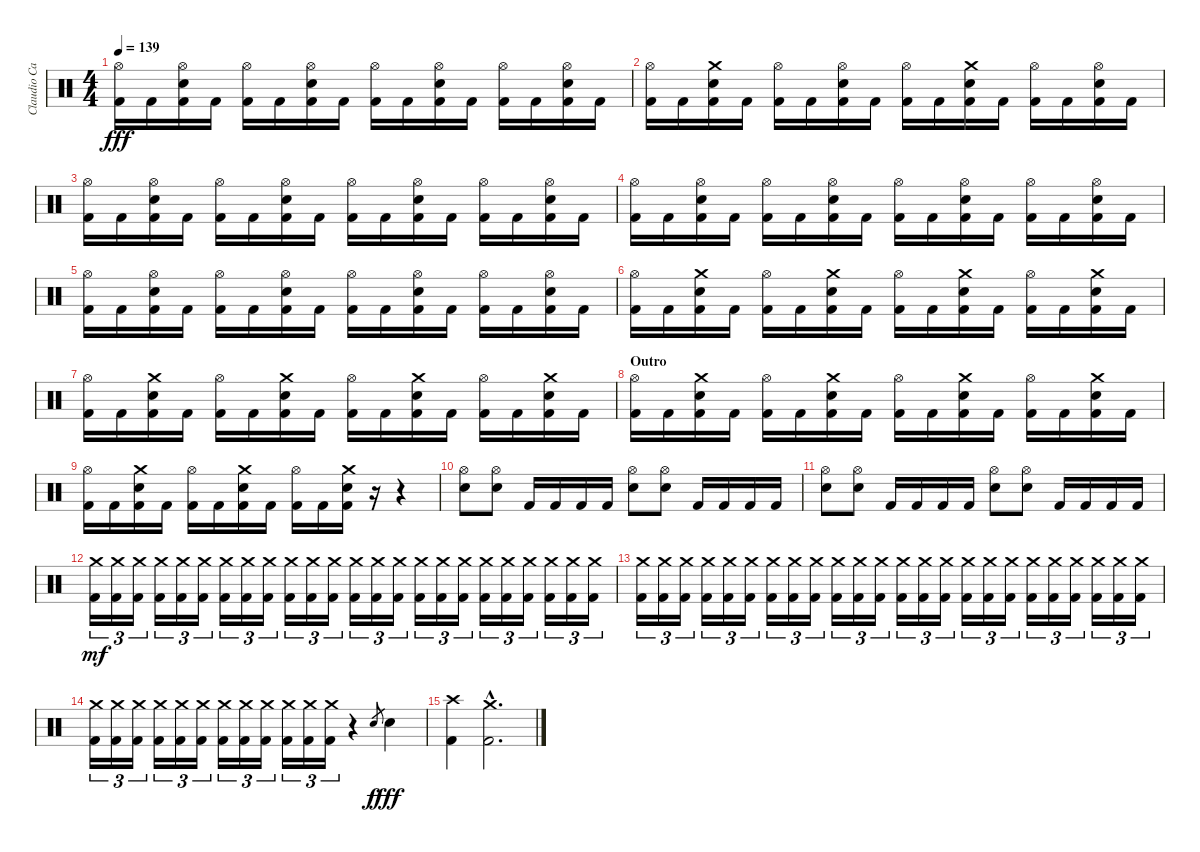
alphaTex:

\track ("Claudio Cardaci" "Claudio Ca") {instrument percussion}
\staff {score}
\articulation defaults
\ts (4 4)
\tempo 139
\clef neutral
\ks c
("Kick (hit) 2" "Hi-Hat (open)").16{dy fff} "Kick (hit) 2".16 ("Kick (hit) 2" "Electric Snare (hit)" "Hi-Hat (open)").16 "Kick (hit) 2".16 ("Kick (hit) 2" "Hi-Hat (open)").16 "Kick (hit) 2".16 ("Kick (hit) 2" "Electric Snare (hit)" "Hi-Hat (open)").16 "Kick (hit) 2".16 ("Kick (hit) 2" "Hi-Hat (open)").16 "Kick (hit) 2".16 ("Kick (hit) 2" "Electric Snare (hit)" "Hi-Hat (open)").16 "Kick (hit) 2".16 ("Kick (hit) 2" "Hi-Hat (open)").16 "Kick (hit) 2".16 ("Kick (hit) 2" "Electric Snare (hit)" "Hi-Hat (open)").16 "Kick (hit) 2".16 |
("Kick (hit) 2" "Hi-Hat (open)").16 "Kick (hit) 2".16 ("Kick (hit) 2" "Electric Snare (hit)" "Crash medium (hit)").16 "Kick (hit) 2".16 ("Kick (hit) 2" "Hi-Hat (open)").16 "Kick (hit) 2".16 ("Kick (hit) 2" "Electric Snare (hit)" "Hi-Hat (open)").16 "Kick (hit) 2".16 ("Kick (hit) 2" "Hi-Hat (open)").16 "Kick (hit) 2".16 ("Kick (hit) 2" "Electric Snare (hit)" "Crash medium (hit)").16 "Kick (hit) 2".16 ("Kick (hit) 2" "Hi-Hat (open)").16 "Kick (hit) 2".16 ("Kick (hit) 2" "Electric Snare (hit)" "Hi-Hat (open)").16 "Kick (hit) 2".16 |
("Kick (hit) 2" "Hi-Hat (open)").16 "Kick (hit) 2".16 ("Kick (hit) 2" "Electric Snare (hit)" "Hi-Hat (open)").16 "Kick (hit) 2".16 ("Kick (hit) 2" "Hi-Hat (open)").16 "Kick (hit) 2".16 ("Kick (hit) 2" "Electric Snare (hit)" "Hi-Hat (open)").16 "Kick (hit) 2".16 ("Kick (hit) 2" "Hi-Hat (open)").16 "Kick (hit) 2".16 ("Kick (hit) 2" "Electric Snare (hit)" "Hi-Hat (open)").16 "Kick (hit) 2".16 ("Kick (hit) 2" "Hi-Hat (open)").16 "Kick (hit) 2".16 ("Kick (hit) 2" "Electric Snare (hit)" "Hi-Hat (open)").16 "Kick (hit) 2".16 |
("Kick (hit) 2" "Hi-Hat (open)").16 "Kick (hit) 2".16 ("Kick (hit) 2" "Electric Snare (hit)" "Hi-Hat (open)").16 "Kick (hit) 2".16 ("Kick (hit) 2" "Hi-Hat (open)").16 "Kick (hit) 2".16 ("Kick (hit) 2" "Electric Snare (hit)" "Hi-Hat (open)").16 "Kick (hit) 2".16 ("Kick (hit) 2" "Hi-Hat (open)").16 "Kick (hit) 2".16 ("Kick (hit) 2" "Electric Snare (hit)" "Hi-Hat (open)").16 "Kick (hit) 2".16 ("Kick (hit) 2" "Hi-Hat (open)").16 "Kick (hit) 2".16 ("Kick (hit) 2" "Electric Snare (hit)" "Hi-Hat (open)").16 "Kick (hit) 2".16 |
("Kick (hit) 2" "Hi-Hat (open)").16 "Kick (hit) 2".16 ("Kick (hit) 2" "Electric Snare (hit)" "Hi-Hat (open)").16 "Kick (hit) 2".16 ("Kick (hit) 2" "Hi-Hat (open)").16 "Kick (hit) 2".16 ("Kick (hit) 2" "Electric Snare (hit)" "Hi-Hat (open)").16 "Kick (hit) 2".16 ("Kick (hit) 2" "Hi-Hat (open)").16 "Kick (hit) 2".16 ("Kick (hit) 2" "Electric Snare (hit)" "Hi-Hat (open)").16 "Kick (hit) 2".16 ("Kick (hit) 2" "Hi-Hat (open)").16 "Kick (hit) 2".16 ("Kick (hit) 2" "Electric Snare (hit)" "Hi-Hat (open)").16 "Kick (hit) 2".16 |
("Kick (hit) 2" "Hi-Hat (open)").16 "Kick (hit) 2".16 ("Kick (hit) 2" "Electric Snare (hit)" "Crash medium (hit)").16 "Kick (hit) 2".16 ("Kick (hit) 2" "Hi-Hat (open)").16 "Kick (hit) 2".16 ("Kick (hit) 2" "Electric Snare (hit)" "Crash medium (hit)").16 "Kick (hit) 2".16 ("Kick (hit) 2" "Hi-Hat (open)").16 "Kick (hit) 2".16 ("Kick (hit) 2" "Electric Snare (hit)" "Crash medium (hit)").16 "Kick (hit) 2".16 ("Kick (hit) 2" "Hi-Hat (open)").16 "Kick (hit) 2".16 ("Kick (hit) 2" "Electric Snare (hit)" "Crash medium (hit)").16 "Kick (hit) 2".16 |
("Kick (hit) 2" "Hi-Hat (open)").16 "Kick (hit) 2".16 ("Kick (hit) 2" "Electric Snare (hit)" "Crash medium (hit)").16 "Kick (hit) 2".16 ("Kick (hit) 2" "Hi-Hat (open)").16 "Kick (hit) 2".16 ("Kick (hit) 2" "Electric Snare (hit)" "Crash medium (hit)").16 "Kick (hit) 2".16 ("Kick (hit) 2" "Hi-Hat (open)").16 "Kick (hit) 2".16 ("Kick (hit) 2" "Electric Snare (hit)" "Crash medium (hit)").16 "Kick (hit) 2".16 ("Kick (hit) 2" "Hi-Hat (open)").16 "Kick (hit) 2".16 ("Kick (hit) 2" "Electric Snare (hit)" "Crash medium (hit)").16 "Kick (hit) 2".16 |
\section ("" "Outro")
("Kick (hit) 2" "Hi-Hat (open)").16 "Kick (hit) 2".16 ("Kick (hit) 2" "Electric Snare (hit)" "Crash medium (hit)").16 "Kick (hit) 2".16 ("Kick (hit) 2" "Hi-Hat (open)").16 "Kick (hit) 2".16 ("Kick (hit) 2" "Electric Snare (hit)" "Crash medium (hit)").16 "Kick (hit) 2".16 ("Kick (hit) 2" "Hi-Hat (open)").16 "Kick (hit) 2".16 ("Kick (hit) 2" "Electric Snare (hit)" "Crash medium (hit)").16 "Kick (hit) 2".16 ("Kick (hit) 2" "Hi-Hat (open)").16 "Kick (hit) 2".16 ("Kick (hit) 2" "Electric Snare (hit)" "Crash medium (hit)").16 "Kick (hit) 2".16 |
("Kick (hit) 2" "Hi-Hat (open)").16 "Kick (hit) 2".16 ("Kick (hit) 2" "Electric Snare (hit)" "Crash medium (hit)").16 "Kick (hit) 2".16 ("Kick (hit) 2" "Hi-Hat (open)").16 "Kick (hit) 2".16 ("Kick (hit) 2" "Electric Snare (hit)" "Crash medium (hit)").16 "Kick (hit) 2".16 ("Kick (hit) 2" "Hi-Hat (open)").16 "Kick (hit) 2".16 ("Kick (hit) 2" "Electric Snare (hit)" "Crash medium (hit)").16 r.16 r.4 |
("Electric Snare (hit)" "Hi-Hat (open)").8 ("Electric Snare (hit)" "Hi-Hat (open)").8 "Kick (hit) 2".16 "Kick (hit) 2".16 "Kick (hit) 2".16 "Kick (hit) 2".16 ("Electric Snare (hit)" "Hi-Hat (open)").8 ("Electric Snare (hit)" "Hi-Hat (open)").8 "Kick (hit) 2".16 "Kick (hit) 2".16 "Kick (hit) 2".16 "Kick (hit) 2".16 |
("Electric Snare (hit)" "Hi-Hat (open)").8 ("Electric Snare (hit)" "Hi-Hat (open)").8 "Kick (hit) 2".16 "Kick (hit) 2".16 "Kick (hit) 2".16 "Kick (hit) 2".16 ("Electric Snare (hit)" "Hi-Hat (open)").8 ("Electric Snare (hit)" "Hi-Hat (open)").8 "Kick (hit) 2".16 "Kick (hit) 2".16 "Kick (hit) 2".16 "Kick (hit) 2".16 |
("Kick (hit) 2" "Crash medium (hit)").16{tu (3 2) dy mf} ("Kick (hit) 2" "Crash medium (hit)").16{tu (3 2)} ("Kick (hit) 2" "Crash medium (hit)").16{tu (3 2)} ("Kick (hit) 2" "Crash medium (hit)").16{tu (3 2)} ("Kick (hit) 2" "Crash medium (hit)").16{tu (3 2)} ("Kick (hit) 2" "Crash medium (hit)").16{tu (3 2)} ("Kick (hit) 2" "Crash medium (hit)").16{tu (3 2)} ("Kick (hit) 2" "Crash medium (hit)").16{tu (3 2)} ("Kick (hit) 2" "Crash medium (hit)").16{tu (3 2)} ("Kick (hit) 2" "Crash medium (hit)").16{tu (3 2)} ("Kick (hit) 2" "Crash medium (hit)").16{tu (3 2)} ("Kick (hit) 2" "Crash medium (hit)").16{tu (3 2)} ("Kick (hit) 2" "Crash medium (hit)").16{tu (3 2)} ("Kick (hit) 2" "Crash medium (hit)").16{tu (3 2)} ("Kick (hit) 2" "Crash medium (hit)").16{tu (3 2)} ("Kick (hit) 2" "Crash medium (hit)").16{tu (3 2)} ("Kick (hit) 2" "Crash medium (hit)").16{tu (3 2)} ("Kick (hit) 2" "Crash medium (hit)").16{tu (3 2)} ("Kick (hit) 2" "Crash medium (hit)").16{tu (3 2)} ("Kick (hit) 2" "Crash medium (hit)").16{tu (3 2)} ("Kick (hit) 2" "Crash medium (hit)").16{tu (3 2)} ("Kick (hit) 2" "Crash medium (hit)").16{tu (3 2)} ("Kick (hit) 2" "Crash medium (hit)").16{tu (3 2)} ("Kick (hit) 2" "Crash medium (hit)").16{tu (3 2)} |
("Kick (hit) 2" "Crash medium (hit)").16{tu (3 2)} ("Kick (hit) 2" "Crash medium (hit)").16{tu (3 2)} ("Kick (hit) 2" "Crash medium (hit)").16{tu (3 2)} ("Kick (hit) 2" "Crash medium (hit)").16{tu (3 2)} ("Kick (hit) 2" "Crash medium (hit)").16{tu (3 2)} ("Kick (hit) 2" "Crash medium (hit)").16{tu (3 2)} ("Kick (hit) 2" "Crash medium (hit)").16{tu (3 2)} ("Kick (hit) 2" "Crash medium (hit)").16{tu (3 2)} ("Kick (hit) 2" "Crash medium (hit)").16{tu (3 2)} ("Kick (hit) 2" "Crash medium (hit)").16{tu (3 2)} ("Kick (hit) 2" "Crash medium (hit)").16{tu (3 2)} ("Kick (hit) 2" "Crash medium (hit)").16{tu (3 2)} ("Kick (hit) 2" "Crash medium (hit)").16{tu (3 2)} ("Kick (hit) 2" "Crash medium (hit)").16{tu (3 2)} ("Kick (hit) 2" "Crash medium (hit)").16{tu (3 2)} ("Kick (hit) 2" "Crash medium (hit)").16{tu (3 2)} ("Kick (hit) 2" "Crash medium (hit)").16{tu (3 2)} ("Kick (hit) 2" "Crash medium (hit)").16{tu (3 2)} ("Kick (hit) 2" "Crash medium (hit)").16{tu (3 2)} ("Kick (hit) 2" "Crash medium (hit)").16{tu (3 2)} ("Kick (hit) 2" "Crash medium (hit)").16{tu (3 2)} ("Kick (hit) 2" "Crash medium (hit)").16{tu (3 2)} ("Kick (hit) 2" "Crash medium (hit)").16{tu (3 2)} ("Kick (hit) 2" "Crash medium (hit)").16{tu (3 2)} |
("Kick (hit) 2" "Crash medium (hit)").16{tu (3 2)} ("Kick (hit) 2" "Crash medium (hit)").16{tu (3 2)} ("Kick (hit) 2" "Crash medium (hit)").16{tu (3 2)} ("Kick (hit) 2" "Crash medium (hit)").16{tu (3 2)} ("Kick (hit) 2" "Crash medium (hit)").16{tu (3 2)} ("Kick (hit) 2" "Crash medium (hit)").16{tu (3 2)} ("Kick (hit) 2" "Crash medium (hit)").16{tu (3 2)} ("Kick (hit) 2" "Crash medium (hit)").16{tu (3 2)} ("Kick (hit) 2" "Crash medium (hit)").16{tu (3 2)} ("Kick (hit) 2" "Crash medium (hit)").16{tu (3 2)} ("Kick (hit) 2" "Crash medium (hit)").16{tu (3 2)} ("Kick (hit) 2" "Crash medium (hit)").16{tu (3 2)} r.4 "Electric Snare (hit)".8{gr dy f} "Electric Snare (hit)".4{dy fff} |
("Kick (hit) 2" "Crash high (hit)").4 ("Kick (hit) 2"{hac} "Crash medium (hit)"{hac}).2{d}
